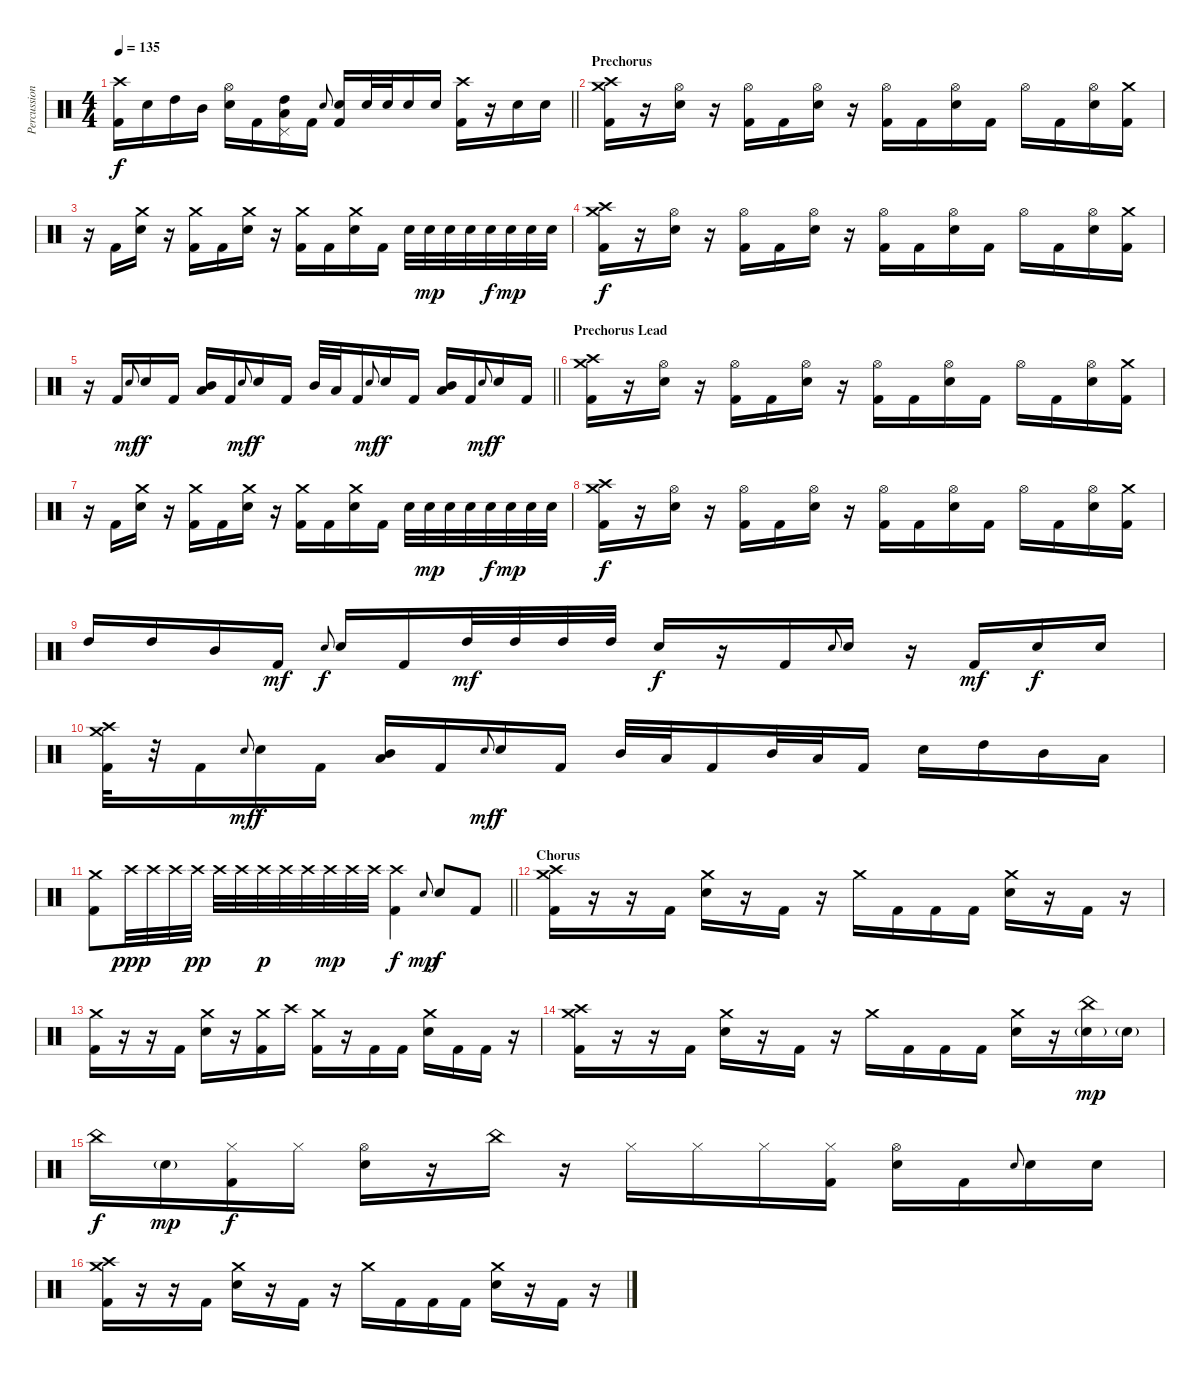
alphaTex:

\track ("Percussion" "Percussion") {instrument percussion}
\staff {score}
\articulation defaults
\ts (4 4)
\tempo 135
\clef neutral
\barLineRight lightlight
\ks c
("Crash high (hit)" "Kick (hit) 2").16{dy f} "Electric Snare (hit)".16 "High Tom (hit)".16 "Mid Tom (hit)".16 ("Hi-Hat (open)" "Electric Snare (hit)").16 "Kick (hit) 2".16 ("Pedal Hi-Hat (hit)" "High Tom (hit)" "Low Tom (hit)").16 "Kick (hit) 2".16 "Electric Snare (hit)".8{gr onbeat} ("Electric Snare (hit)" "Kick (hit) 2").16 "Electric Snare (hit)".32 "Electric Snare (hit)".32 "Electric Snare (hit)".16 "Electric Snare (hit)".16 ("Crash high (hit)" "Kick (hit) 2").16 r.16 "Electric Snare (hit)".16 "Electric Snare (hit)".16 |
\section ("" "Prechorus")
("Crash high (hit)" "Crash medium (hit)" "Kick (hit) 2").16 r.16 ("Hi-Hat (open)" "Electric Snare (hit)").16 r.16 ("Hi-Hat (open)" "Kick (hit) 2").16 "Kick (hit) 2".16 ("Hi-Hat (open)" "Electric Snare (hit)").16 r.16 ("Hi-Hat (open)" "Kick (hit) 2").16 "Kick (hit) 2".16 ("Hi-Hat (open)" "Electric Snare (hit)").16 "Kick (hit) 2".16 "Hi-Hat (open)".16 "Kick (hit) 2".16 ("Hi-Hat (open)" "Electric Snare (hit)").16 ("Crash medium (hit)" "Kick (hit) 2").16 |
r.16 "Kick (hit) 2".16 ("Crash medium (hit)" "Electric Snare (hit)").16 r.16 ("Crash medium (hit)" "Kick (hit) 2").16 "Kick (hit) 2".16 ("Crash medium (hit)" "Electric Snare (hit)").16 r.16 ("Crash medium (hit)" "Kick (hit) 2").16 "Kick (hit) 2".16 ("Crash medium (hit)" "Electric Snare (hit)").16 "Kick (hit) 2".16 "Electric Snare (hit)".32 "Electric Snare (hit)".32{dy mp} "Electric Snare (hit)".32 "Electric Snare (hit)".32 "Electric Snare (hit)".32{dy f} "Electric Snare (hit)".32{dy mp} "Electric Snare (hit)".32 "Electric Snare (hit)".32 |
("Crash high (hit)" "Crash medium (hit)" "Kick (hit) 2").16{dy f} r.16 ("Hi-Hat (open)" "Electric Snare (hit)").16 r.16 ("Hi-Hat (open)" "Kick (hit) 2").16 "Kick (hit) 2".16 ("Hi-Hat (open)" "Electric Snare (hit)").16 r.16 ("Hi-Hat (open)" "Kick (hit) 2").16 "Kick (hit) 2".16 ("Hi-Hat (open)" "Electric Snare (hit)").16 "Kick (hit) 2".16 "Hi-Hat (open)".16 "Kick (hit) 2".16 ("Hi-Hat (open)" "Electric Snare (hit)").16 ("Crash medium (hit)" "Kick (hit) 2").16 |
\barLineRight lightlight
r.16 "Kick (hit) 2".16 "Electric Snare (hit)".8{gr onbeat dy mf} "Electric Snare (hit)".16{dy f} "Kick (hit) 2".16 ("Mid Tom (hit)" "Low Tom (hit)").16 "Kick (hit) 2".16 "Electric Snare (hit)".8{gr onbeat dy mf} "Electric Snare (hit)".16{dy f} "Kick (hit) 2".16 "Mid Tom (hit)".32 "Low Tom (hit)".32 "Kick (hit) 2".16 "Electric Snare (hit)".8{gr onbeat dy mf} "Electric Snare (hit)".16{dy f} "Kick (hit) 2".16 ("Mid Tom (hit)" "Low Tom (hit)").16 "Kick (hit) 2".16 "Electric Snare (hit)".8{gr onbeat dy mf} "Electric Snare (hit)".16{dy f} "Kick (hit) 2".16 |
\section ("" "Prechorus Lead")
("Crash high (hit)" "Crash medium (hit)" "Kick (hit) 2").16 r.16 ("Hi-Hat (open)" "Electric Snare (hit)").16 r.16 ("Hi-Hat (open)" "Kick (hit) 2").16 "Kick (hit) 2".16 ("Hi-Hat (open)" "Electric Snare (hit)").16 r.16 ("Hi-Hat (open)" "Kick (hit) 2").16 "Kick (hit) 2".16 ("Hi-Hat (open)" "Electric Snare (hit)").16 "Kick (hit) 2".16 "Hi-Hat (open)".16 "Kick (hit) 2".16 ("Hi-Hat (open)" "Electric Snare (hit)").16 ("Crash medium (hit)" "Kick (hit) 2").16 |
r.16 "Kick (hit) 2".16 ("Crash medium (hit)" "Electric Snare (hit)").16 r.16 ("Crash medium (hit)" "Kick (hit) 2").16 "Kick (hit) 2".16 ("Crash medium (hit)" "Electric Snare (hit)").16 r.16 ("Crash medium (hit)" "Kick (hit) 2").16 "Kick (hit) 2".16 ("Crash medium (hit)" "Electric Snare (hit)").16 "Kick (hit) 2".16 "Electric Snare (hit)".32 "Electric Snare (hit)".32{dy mp} "Electric Snare (hit)".32 "Electric Snare (hit)".32 "Electric Snare (hit)".32{dy f} "Electric Snare (hit)".32{dy mp} "Electric Snare (hit)".32 "Electric Snare (hit)".32 |
("Crash high (hit)" "Crash medium (hit)" "Kick (hit) 2").16{dy f} r.16 ("Hi-Hat (open)" "Electric Snare (hit)").16 r.16 ("Hi-Hat (open)" "Kick (hit) 2").16 "Kick (hit) 2".16 ("Hi-Hat (open)" "Electric Snare (hit)").16 r.16 ("Hi-Hat (open)" "Kick (hit) 2").16 "Kick (hit) 2".16 ("Hi-Hat (open)" "Electric Snare (hit)").16 "Kick (hit) 2".16 "Hi-Hat (open)".16 "Kick (hit) 2".16 ("Hi-Hat (open)" "Electric Snare (hit)").16 ("Crash medium (hit)" "Kick (hit) 2").16 |
"High Tom (hit)".16 "High Tom (hit)".16 "Mid Tom (hit)".16 "Kick (hit) 2".16{dy mf} "Electric Snare (hit)".8{gr onbeat dy f} "Electric Snare (hit)".16 "Kick (hit) 2".16 "High Tom (hit)".32{dy mf} "High Tom (hit)".32 "High Tom (hit)".32 "High Tom (hit)".32 "Electric Snare (hit)".16{dy f} r.16 "Kick (hit) 2".16 "Electric Snare (hit)".8{gr onbeat} "Electric Snare (hit)".16 r.16 "Kick (hit) 2".16{dy mf} "Electric Snare (hit)".16{dy f} "Electric Snare (hit)".16 |
("Crash high (hit)" "Crash medium (hit)" "Kick (hit) 2").32 r.32 "Kick (hit) 2".16 "Electric Snare (hit)".8{gr onbeat dy mf} "Electric Snare (hit)".16{dy f} "Kick (hit) 2".16 ("Mid Tom (hit)" "Low Tom (hit)").16 "Kick (hit) 2".16 "Electric Snare (hit)".8{gr onbeat dy mf} "Electric Snare (hit)".16{dy f} "Kick (hit) 2".16 "Mid Tom (hit)".32 "Low Tom (hit)".32 "Kick (hit) 2".16 "Mid Tom (hit)".32 "Low Tom (hit)".32 "Kick (hit) 2".16 "Electric Snare (hit)".16 "High Tom (hit)".16 "Mid Tom (hit)".16 "Low Tom (hit)".16 |
\barLineRight lightlight
("Crash medium (hit)" "Kick (hit) 2").8 "Crash high (hit)".32{dy ppp} "Crash high (hit)".32 "Crash high (hit)".32 "Crash high (hit)".32{dy pp} "Crash high (hit)".32 "Crash high (hit)".32 "Crash high (hit)".32{dy p} "Crash high (hit)".32 "Crash high (hit)".32 "Crash high (hit)".32{dy mp} "Crash high (hit)".32 "Crash high (hit)".32 ("Crash high (hit)" "Kick (hit) 2").4{dy f} "Electric Snare (hit)".8{gr onbeat dy mp} "Electric Snare (hit)".8{dy f} "Kick (hit) 2".8 |
\section ("" "Chorus")
("Crash medium (hit)" "Crash high (hit)" "Kick (hit) 2").16 r.16 r.16 "Kick (hit) 2".16 ("Crash medium (hit)" "Electric Snare (hit)").16 r.16 "Kick (hit) 2".16 r.16 "Crash medium (hit)".16 "Kick (hit) 2".16 "Kick (hit) 2".16 "Kick (hit) 2".16 ("Crash medium (hit)" "Electric Snare (hit)").16 r.16 "Kick (hit) 2".16 r.16 |
("Crash medium (hit)" "Kick (hit) 2").16 r.16 r.16 "Kick (hit) 2".16 ("Crash medium (hit)" "Electric Snare (hit)").16 r.16 ("Crash medium (hit)" "Kick (hit) 2").16 "Crash high (hit)".16 ("Crash medium (hit)" "Kick (hit) 2").16 r.16 "Kick (hit) 2".16 "Kick (hit) 2".16 ("Crash medium (hit)" "Electric Snare (hit)").16 "Kick (hit) 2".16 "Kick (hit) 2".16 r.16 |
("Crash medium (hit)" "Crash high (hit)" "Kick (hit) 2").16 r.16 r.16 "Kick (hit) 2".16 ("Crash medium (hit)" "Electric Snare (hit)").16 r.16 "Kick (hit) 2".16 r.16 "Crash medium (hit)".16 "Kick (hit) 2".16 "Kick (hit) 2".16 "Kick (hit) 2".16 ("Crash medium (hit)" "Electric Snare (hit)").16 r.16 ("China (hit)" "Electric Snare (hit)"{g}).16{dy mp} "Electric Snare (hit)"{g}.16 |
"China (hit)".16{dy f} "Electric Snare (hit)"{g}.16{dy mp} ("Hi-Hat (closed)" "Kick (hit) 2").16{dy f} "Hi-Hat (closed)".16 ("Hi-Hat (open)" "Electric Snare (hit)").16 r.16 "China (hit)".16 r.16 "Hi-Hat (closed)".16 "Hi-Hat (closed)".16 "Hi-Hat (closed)".16 ("Hi-Hat (closed)" "Kick (hit) 2").16 ("Hi-Hat (open)" "Electric Snare (hit)").16 "Kick (hit) 2".16 "Electric Snare (hit)".8{gr onbeat} "Electric Snare (hit)".16 "Electric Snare (hit)".16 |
("Crash medium (hit)" "Crash high (hit)" "Kick (hit) 2").16 r.16 r.16 "Kick (hit) 2".16 ("Crash medium (hit)" "Electric Snare (hit)").16 r.16 "Kick (hit) 2".16 r.16 "Crash medium (hit)".16 "Kick (hit) 2".16 "Kick (hit) 2".16 "Kick (hit) 2".16 ("Crash medium (hit)" "Electric Snare (hit)").16 r.16 "Kick (hit) 2".16 r.16
